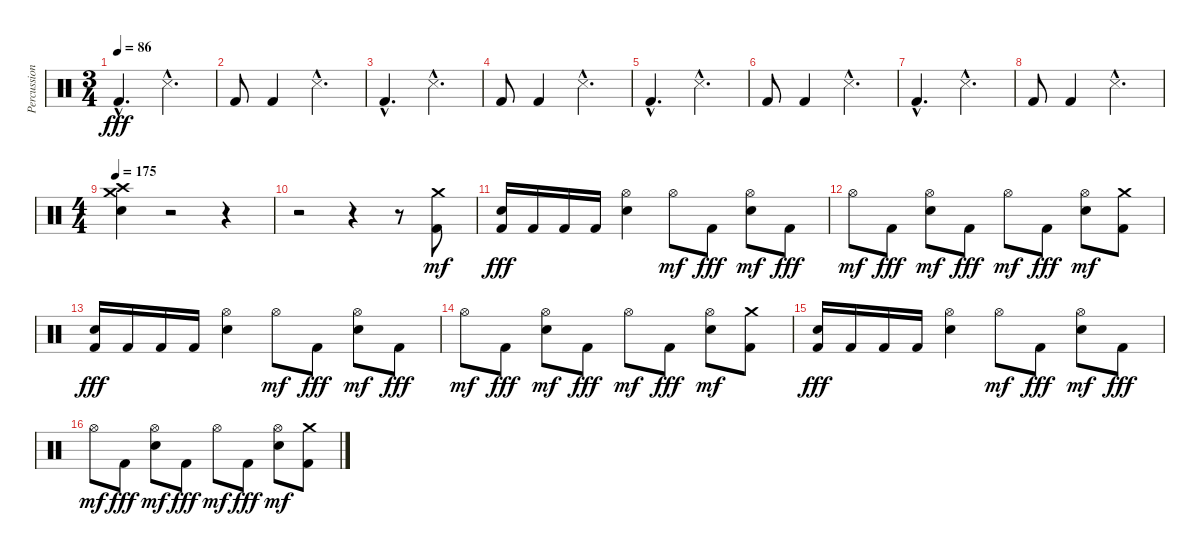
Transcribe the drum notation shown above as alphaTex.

\track ("Percussion" "Percussion") {instrument percussion}
\staff {score}
\articulation defaults
\ts (3 4)
\tempo 86
\clef neutral
\ks c "Kick (hit) 2"{hac}.4{d dy fff} "Snare (side stick) 3"{hac}.4{d}
|
"Kick (hit) 2".8 "Kick (hit) 2".4 "Snare (side stick) 3"{hac}.4{d} |
"Kick (hit) 2"{hac}.4{d} "Snare (side stick) 3"{hac}.4{d} |
"Kick (hit) 2".8 "Kick (hit) 2".4 "Snare (side stick) 3"{hac}.4{d} |
"Kick (hit) 2"{hac}.4{d} "Snare (side stick) 3"{hac}.4{d} |
"Kick (hit) 2".8 "Kick (hit) 2".4 "Snare (side stick) 3"{hac}.4{d} |
"Kick (hit) 2"{hac}.4{d} "Snare (side stick) 3"{hac}.4{d} |
"Kick (hit) 2".8 "Kick (hit) 2".4 "Snare (side stick) 3"{hac}.4{d} |
\ts (4 4)
\tempo 175
("Electric Snare (hit)" "Crash high (hit)" "Crash medium (hit)").4 r.2 r.4 |
r.2 r.4 r.8 ("Kick (hit) 2" "Crash medium (hit)").8{dy mf} |
("Kick (hit) 2" "Electric Snare (hit)").16{dy fff} "Kick (hit) 2".16 "Kick (hit) 2".16 "Kick (hit) 2".16 ("Electric Snare (hit)" "Hi-Hat (open)").4 "Hi-Hat (open)".8{dy mf} "Kick (hit) 2".8{dy fff} ("Electric Snare (hit)" "Hi-Hat (open)").8{dy mf} "Kick (hit) 2".8{dy fff} |
"Hi-Hat (open)".8{dy mf} "Kick (hit) 2".8{dy fff} ("Electric Snare (hit)" "Hi-Hat (open)").8{dy mf} "Kick (hit) 2".8{dy fff} "Hi-Hat (open)".8{dy mf} "Kick (hit) 2".8{dy fff} ("Electric Snare (hit)" "Hi-Hat (open)").8{dy mf} ("Kick (hit) 2" "Crash medium (hit)").8 |
("Kick (hit) 2" "Electric Snare (hit)").16{dy fff} "Kick (hit) 2".16 "Kick (hit) 2".16 "Kick (hit) 2".16 ("Electric Snare (hit)" "Hi-Hat (open)").4 "Hi-Hat (open)".8{dy mf} "Kick (hit) 2".8{dy fff} ("Electric Snare (hit)" "Hi-Hat (open)").8{dy mf} "Kick (hit) 2".8{dy fff} |
"Hi-Hat (open)".8{dy mf} "Kick (hit) 2".8{dy fff} ("Electric Snare (hit)" "Hi-Hat (open)").8{dy mf} "Kick (hit) 2".8{dy fff} "Hi-Hat (open)".8{dy mf} "Kick (hit) 2".8{dy fff} ("Electric Snare (hit)" "Hi-Hat (open)").8{dy mf} ("Kick (hit) 2" "Crash medium (hit)").8 |
("Kick (hit) 2" "Electric Snare (hit)").16{dy fff} "Kick (hit) 2".16 "Kick (hit) 2".16 "Kick (hit) 2".16 ("Electric Snare (hit)" "Hi-Hat (open)").4 "Hi-Hat (open)".8{dy mf} "Kick (hit) 2".8{dy fff} ("Electric Snare (hit)" "Hi-Hat (open)").8{dy mf} "Kick (hit) 2".8{dy fff} |
"Hi-Hat (open)".8{dy mf} "Kick (hit) 2".8{dy fff} ("Electric Snare (hit)" "Hi-Hat (open)").8{dy mf} "Kick (hit) 2".8{dy fff} "Hi-Hat (open)".8{dy mf} "Kick (hit) 2".8{dy fff} ("Electric Snare (hit)" "Hi-Hat (open)").8{dy mf} ("Kick (hit) 2" "Crash medium (hit)").8
